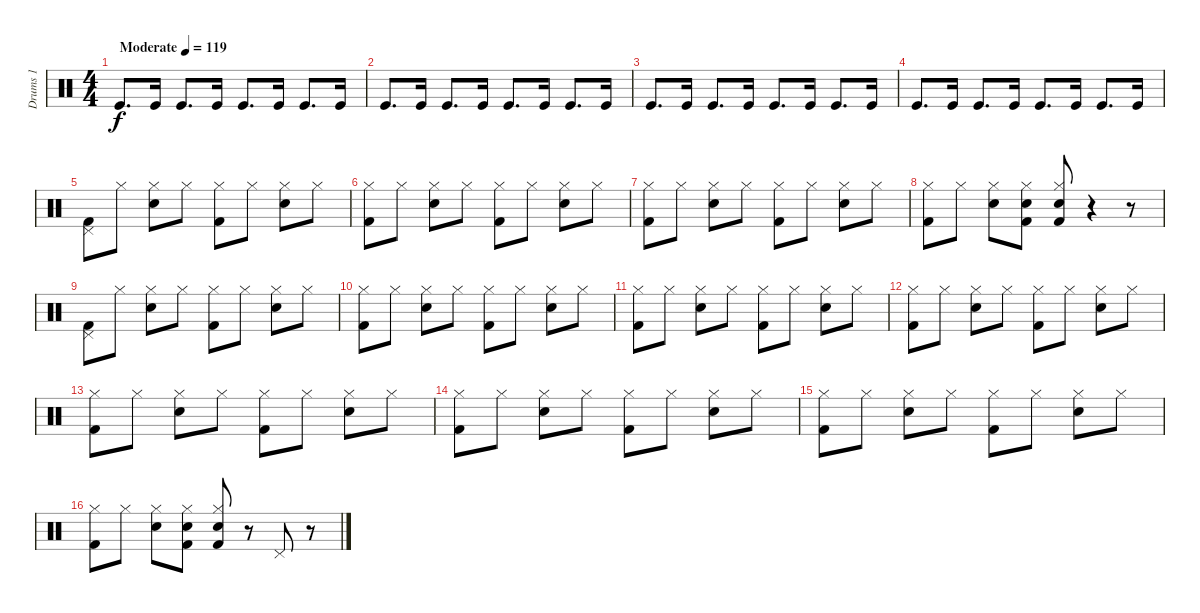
\track ("Drums 1" "Drums 1") {instrument percussion}
\staff {score}
\articulation defaults
\ts (4 4)
\tempo (119 "Moderate")
\clef neutral
\ks c "Kick (hit)".8{d dy f} "Kick (hit)".16 "Kick (hit)".8{d} "Kick (hit)".16 "Kick (hit)".8{d} "Kick (hit)".16 "Kick (hit)".8{d} "Kick (hit)".16
|
"Kick (hit)".8{d} "Kick (hit)".16 "Kick (hit)".8{d} "Kick (hit)".16 "Kick (hit)".8{d} "Kick (hit)".16 "Kick (hit)".8{d} "Kick (hit)".16 |
"Kick (hit)".8{d} "Kick (hit)".16 "Kick (hit)".8{d} "Kick (hit)".16 "Kick (hit)".8{d} "Kick (hit)".16 "Kick (hit)".8{d} "Kick (hit)".16 |
"Kick (hit)".8{d} "Kick (hit)".16 "Kick (hit)".8{d} "Kick (hit)".16 "Kick (hit)".8{d} "Kick (hit)".16 "Kick (hit)".8{d} "Kick (hit)".16 |
("Pedal Hi-Hat (hit)" "Kick (hit) 2").8 "Hi-Hat (closed)".8 ("Hi-Hat (closed)" "Electric Snare (hit)").8 "Hi-Hat (closed)".8 ("Hi-Hat (closed)" "Kick (hit) 2").8 "Hi-Hat (closed)".8 ("Hi-Hat (closed)" "Electric Snare (hit)").8 "Hi-Hat (closed)".8 |
("Hi-Hat (closed)" "Kick (hit) 2").8 "Hi-Hat (closed)".8 ("Hi-Hat (closed)" "Electric Snare (hit)").8 "Hi-Hat (closed)".8 ("Hi-Hat (closed)" "Kick (hit) 2").8 "Hi-Hat (closed)".8 ("Hi-Hat (closed)" "Electric Snare (hit)").8 "Hi-Hat (closed)".8 |
("Hi-Hat (closed)" "Kick (hit) 2").8 "Hi-Hat (closed)".8 ("Hi-Hat (closed)" "Electric Snare (hit)").8 "Hi-Hat (closed)".8 ("Hi-Hat (closed)" "Kick (hit) 2").8 "Hi-Hat (closed)".8 ("Hi-Hat (closed)" "Electric Snare (hit)").8 "Hi-Hat (closed)".8 |
("Hi-Hat (closed)" "Kick (hit) 2").8 "Hi-Hat (closed)".8 ("Hi-Hat (closed)" "Electric Snare (hit)").8 ("Hi-Hat (closed)" "Kick (hit) 2" "Electric Snare (hit)").8 ("Hi-Hat (closed)" "Kick (hit) 2" "Electric Snare (hit)").8 r.4 r.8 |
("Pedal Hi-Hat (hit)" "Kick (hit) 2").8 "Hi-Hat (closed)".8 ("Hi-Hat (closed)" "Electric Snare (hit)").8 "Hi-Hat (closed)".8 ("Hi-Hat (closed)" "Kick (hit) 2").8 "Hi-Hat (closed)".8 ("Hi-Hat (closed)" "Electric Snare (hit)").8 "Hi-Hat (closed)".8 |
("Hi-Hat (closed)" "Kick (hit) 2").8 "Hi-Hat (closed)".8 ("Hi-Hat (closed)" "Electric Snare (hit)").8 "Hi-Hat (closed)".8 ("Hi-Hat (closed)" "Kick (hit) 2").8 "Hi-Hat (closed)".8 ("Hi-Hat (closed)" "Electric Snare (hit)").8 "Hi-Hat (closed)".8 |
("Hi-Hat (closed)" "Kick (hit) 2").8 "Hi-Hat (closed)".8 ("Hi-Hat (closed)" "Electric Snare (hit)").8 "Hi-Hat (closed)".8 ("Hi-Hat (closed)" "Kick (hit) 2").8 "Hi-Hat (closed)".8 ("Hi-Hat (closed)" "Electric Snare (hit)").8 "Hi-Hat (closed)".8 |
("Hi-Hat (closed)" "Kick (hit) 2").8 "Hi-Hat (closed)".8 ("Hi-Hat (closed)" "Electric Snare (hit)").8 "Hi-Hat (closed)".8 ("Hi-Hat (closed)" "Kick (hit) 2").8 "Hi-Hat (closed)".8 ("Hi-Hat (closed)" "Electric Snare (hit)").8 "Hi-Hat (closed)".8 |
("Hi-Hat (closed)" "Kick (hit) 2").8 "Hi-Hat (closed)".8 ("Hi-Hat (closed)" "Electric Snare (hit)").8 "Hi-Hat (closed)".8 ("Hi-Hat (closed)" "Kick (hit) 2").8 "Hi-Hat (closed)".8 ("Hi-Hat (closed)" "Electric Snare (hit)").8 "Hi-Hat (closed)".8 |
("Hi-Hat (closed)" "Kick (hit) 2").8 "Hi-Hat (closed)".8 ("Hi-Hat (closed)" "Electric Snare (hit)").8 "Hi-Hat (closed)".8 ("Hi-Hat (closed)" "Kick (hit) 2").8 "Hi-Hat (closed)".8 ("Hi-Hat (closed)" "Electric Snare (hit)").8 "Hi-Hat (closed)".8 |
("Hi-Hat (closed)" "Kick (hit) 2").8 "Hi-Hat (closed)".8 ("Hi-Hat (closed)" "Electric Snare (hit)").8 "Hi-Hat (closed)".8 ("Hi-Hat (closed)" "Kick (hit) 2").8 "Hi-Hat (closed)".8 ("Hi-Hat (closed)" "Electric Snare (hit)").8 "Hi-Hat (closed)".8 |
("Hi-Hat (closed)" "Kick (hit) 2").8 "Hi-Hat (closed)".8 ("Hi-Hat (closed)" "Electric Snare (hit)").8 ("Hi-Hat (closed)" "Kick (hit) 2" "Electric Snare (hit)").8 ("Hi-Hat (closed)" "Kick (hit) 2" "Electric Snare (hit)").8 r.8 "Pedal Hi-Hat (hit)".8 r.8
